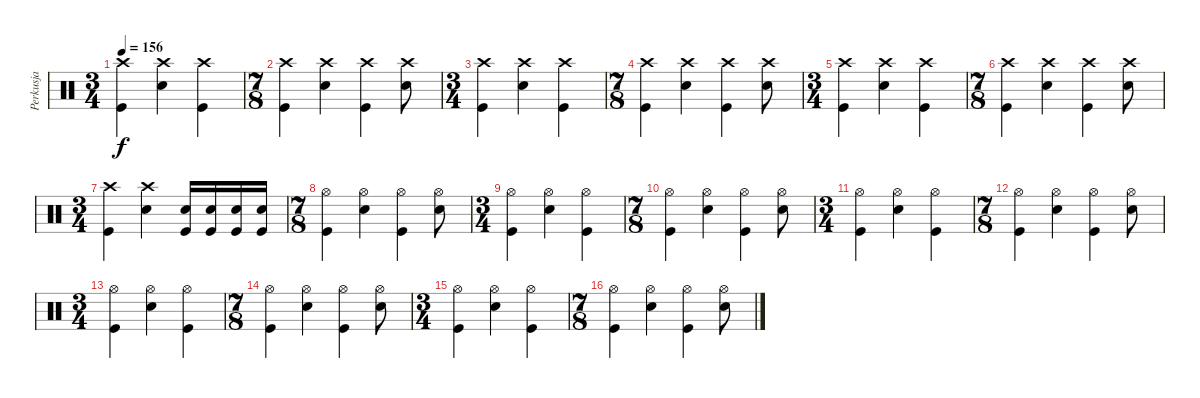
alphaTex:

\track ("Perkusja" "Perkusja") {instrument percussion}
\staff {score}
\articulation defaults
\ts (3 4)
\tempo 156
\clef neutral
\ks c
("Crash high (hit)" "Kick (hit)").4{dy f} ("Crash high (hit)" "Snare (hit) 2").4 ("Crash high (hit)" "Kick (hit)").4 |
\ts (7 8)
("Crash high (hit)" "Kick (hit)").4 ("Crash high (hit)" "Snare (hit) 2").4 ("Crash high (hit)" "Kick (hit)").4 ("Crash high (hit)" "Snare (hit) 2").8 |
\ts (3 4)
("Crash high (hit)" "Kick (hit)").4 ("Crash high (hit)" "Snare (hit) 2").4 ("Crash high (hit)" "Kick (hit)").4 |
\ts (7 8)
("Crash high (hit)" "Kick (hit)").4 ("Crash high (hit)" "Snare (hit) 2").4 ("Crash high (hit)" "Kick (hit)").4 ("Crash high (hit)" "Snare (hit) 2").8 |
\ts (3 4)
("Crash high (hit)" "Kick (hit)").4 ("Crash high (hit)" "Snare (hit) 2").4 ("Crash high (hit)" "Kick (hit)").4 |
\ts (7 8)
("Crash high (hit)" "Kick (hit)").4 ("Crash high (hit)" "Snare (hit) 2").4 ("Crash high (hit)" "Kick (hit)").4 ("Crash high (hit)" "Snare (hit) 2").8 |
\ts (3 4)
("Crash high (hit)" "Kick (hit)").4 ("Crash high (hit)" "Snare (hit) 2").4 ("Snare (hit) 2" "Kick (hit)").16 ("Snare (hit) 2" "Kick (hit)").16 ("Snare (hit) 2" "Kick (hit)").16 ("Snare (hit) 2" "Kick (hit)").16 |
\ts (7 8)
("Hi-Hat (open)" "Kick (hit)").4 ("Hi-Hat (open)" "Snare (hit) 2").4 ("Hi-Hat (open)" "Kick (hit)").4 ("Hi-Hat (open)" "Snare (hit) 2").8 |
\ts (3 4)
("Hi-Hat (open)" "Kick (hit)").4 ("Hi-Hat (open)" "Snare (hit) 2").4 ("Hi-Hat (open)" "Kick (hit)").4 |
\ts (7 8)
("Hi-Hat (open)" "Kick (hit)").4 ("Hi-Hat (open)" "Snare (hit) 2").4 ("Hi-Hat (open)" "Kick (hit)").4 ("Hi-Hat (open)" "Snare (hit) 2").8 |
\ts (3 4)
("Hi-Hat (open)" "Kick (hit)").4 ("Hi-Hat (open)" "Snare (hit) 2").4 ("Hi-Hat (open)" "Kick (hit)").4 |
\ts (7 8)
("Hi-Hat (open)" "Kick (hit)").4 ("Hi-Hat (open)" "Snare (hit) 2").4 ("Hi-Hat (open)" "Kick (hit)").4 ("Hi-Hat (open)" "Snare (hit) 2").8 |
\ts (3 4)
("Hi-Hat (open)" "Kick (hit)").4 ("Hi-Hat (open)" "Snare (hit) 2").4 ("Hi-Hat (open)" "Kick (hit)").4 |
\ts (7 8)
("Hi-Hat (open)" "Kick (hit)").4 ("Hi-Hat (open)" "Snare (hit) 2").4 ("Hi-Hat (open)" "Kick (hit)").4 ("Hi-Hat (open)" "Snare (hit) 2").8 |
\ts (3 4)
("Hi-Hat (open)" "Kick (hit)").4 ("Hi-Hat (open)" "Snare (hit) 2").4 ("Hi-Hat (open)" "Kick (hit)").4 |
\ts (7 8)
("Hi-Hat (open)" "Kick (hit)").4 ("Hi-Hat (open)" "Snare (hit) 2").4 ("Hi-Hat (open)" "Kick (hit)").4 ("Hi-Hat (open)" "Snare (hit) 2").8
